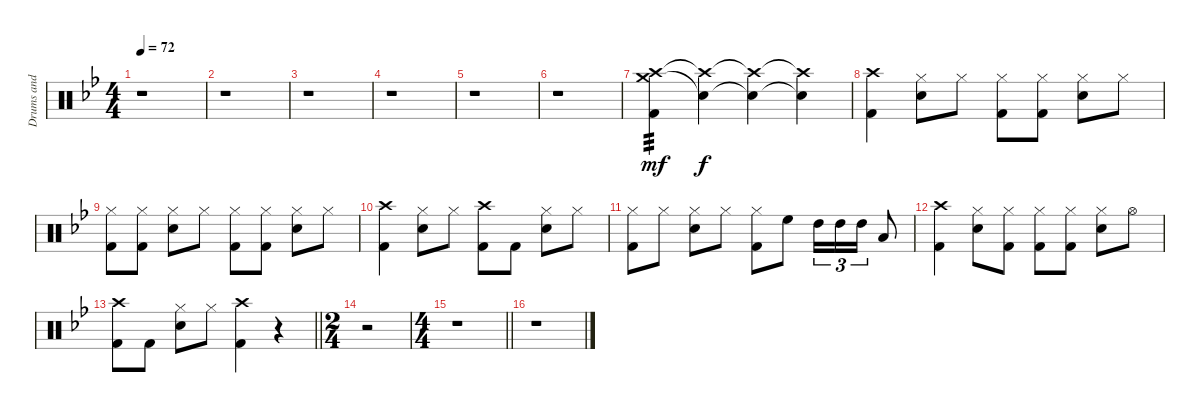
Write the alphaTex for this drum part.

\track ("Drums and percussion" "Drums and ") {instrument percussion}
\staff {score}
\articulation defaults
\ts (4 4)
\tempo 72
\clef neutral
\ks bb
r.1{dy f} |
r.1 |
r.1 |
r.1 |
r.1 |
r.1 |
("Crash high (hit)" "Crash medium (hit)" "Kick (hit) 2").4{tp 3 dy mf volume 10} ("Crash high (hit)"{t} "Snare (hit)"{t}).4{dy f} ("Crash high (hit)"{t} "Snare (hit)"{t}).4 ("Crash high (hit)"{t} "Snare (hit)"{t}).4 |
("Crash high (hit)" "Kick (hit) 2").4 ("Hi-Hat (closed)" "Snare (hit) 2").8 "Hi-Hat (closed)".8 ("Hi-Hat (closed)" "Kick (hit) 2").8 ("Hi-Hat (closed)" "Kick (hit) 2").8 ("Hi-Hat (closed)" "Snare (hit) 2").8 "Hi-Hat (closed)".8 |
("Hi-Hat (closed)" "Kick (hit) 2").8 ("Hi-Hat (closed)" "Kick (hit) 2").8 ("Hi-Hat (closed)" "Snare (hit) 2").8 "Hi-Hat (closed)".8 ("Hi-Hat (closed)" "Kick (hit) 2").8 ("Hi-Hat (closed)" "Kick (hit) 2").8 ("Hi-Hat (closed)" "Snare (hit) 2").8 "Hi-Hat (closed)".8 |
("Crash high (hit)" "Kick (hit) 2").4 ("Hi-Hat (closed)" "Snare (hit) 2").8 "Hi-Hat (closed)".8 ("Crash high (hit)" "Kick (hit) 2").8 "Kick (hit) 2".8 ("Hi-Hat (closed)" "Snare (hit) 2").8 "Hi-Hat (closed)".8 |
("Hi-Hat (closed)" "Kick (hit) 2").8 "Hi-Hat (closed)".8 ("Hi-Hat (closed)" "Snare (hit) 2").8 "Hi-Hat (closed)".8 ("Hi-Hat (closed)" "Kick (hit) 2").8 "High Floor Tom (hit)".8 "High Tom (hit)".16{tu (3 2)} "High Tom (hit)".16{tu (3 2)} "High Tom (hit)".16{tu (3 2)} "Low Tom (hit)".8 |
("Crash high (hit)" "Kick (hit) 2").4 ("Hi-Hat (closed)" "Snare (hit) 2").8 ("Hi-Hat (closed)" "Kick (hit) 2").8 ("Hi-Hat (closed)" "Kick (hit) 2").8 ("Hi-Hat (closed)" "Kick (hit) 2").8 ("Hi-Hat (closed)" "Snare (hit) 2").8 "Hi-Hat (open)".8 |
\barLineRight lightlight
("Crash high (hit)" "Kick (hit) 2").8 "Kick (hit) 2".8 ("Hi-Hat (closed)" "Snare (hit) 2").8 "Hi-Hat (closed)".8 ("Crash high (hit)" "Kick (hit) 2").4 r.4 |
\ts (2 4)
r.2 |
\ts (4 4)
\barLineRight lightlight
r.1 |
r.1
